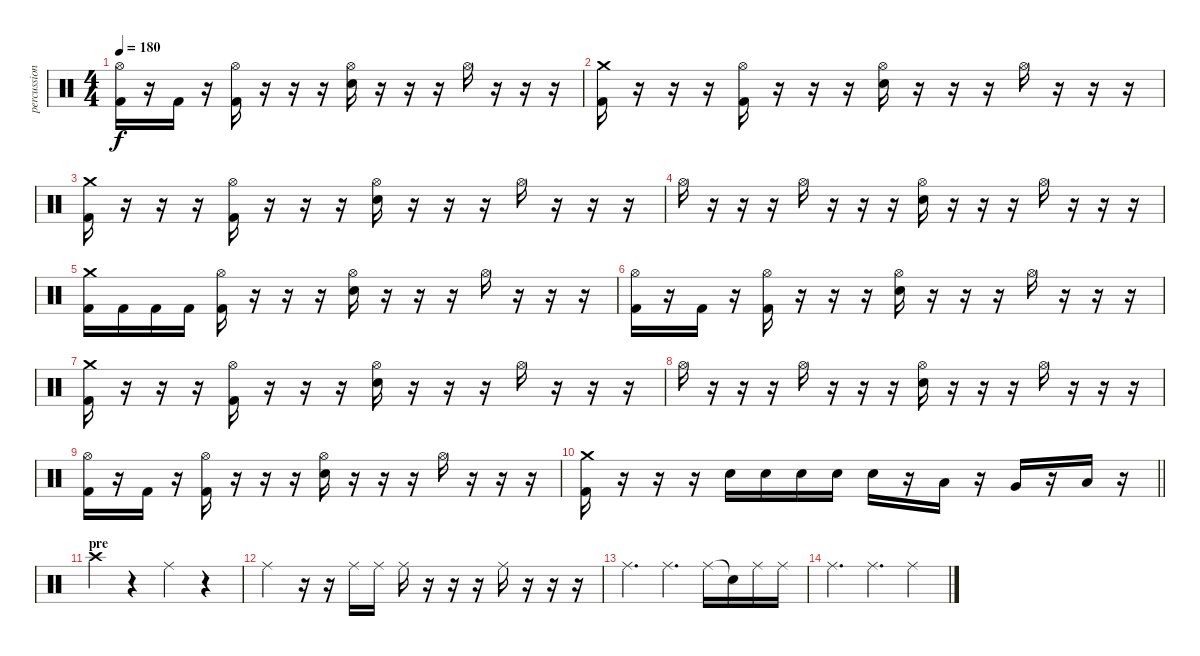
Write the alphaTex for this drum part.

\track ("percussion" "percussion") {instrument percussion}
\staff {score}
\articulation defaults
\ts (4 4)
\tempo 180
\clef neutral
\ks c
("Hi-Hat (open)" "Kick (hit) 2").16{dy f} r.16 "Kick (hit) 2".16 r.16 ("Hi-Hat (open)" "Kick (hit) 2").16 r.16 r.16 r.16 ("Hi-Hat (open)" "Electric Snare (hit)").16 r.16 r.16 r.16 "Hi-Hat (open)".16 r.16 r.16 r.16 |
("Crash medium (hit)" "Kick (hit) 2").16 r.16 r.16 r.16 ("Hi-Hat (open)" "Kick (hit) 2").16 r.16 r.16 r.16 ("Hi-Hat (open)" "Electric Snare (hit)").16 r.16 r.16 r.16 "Hi-Hat (open)".16 r.16 r.16 r.16 |
("Crash medium (hit)" "Kick (hit) 2").16 r.16 r.16 r.16 ("Hi-Hat (open)" "Kick (hit) 2").16 r.16 r.16 r.16 ("Hi-Hat (open)" "Electric Snare (hit)").16 r.16 r.16 r.16 "Hi-Hat (open)".16 r.16 r.16 r.16 |
"Hi-Hat (open)".16 r.16 r.16 r.16 "Hi-Hat (open)".16 r.16 r.16 r.16 ("Hi-Hat (open)" "Electric Snare (hit)").16 r.16 r.16 r.16 "Hi-Hat (open)".16 r.16 r.16 r.16 |
("Crash medium (hit)" "Kick (hit) 2").16 "Kick (hit) 2".16 "Kick (hit) 2".16 "Kick (hit) 2".16 ("Hi-Hat (open)" "Kick (hit) 2").16 r.16 r.16 r.16 ("Hi-Hat (open)" "Electric Snare (hit)").16 r.16 r.16 r.16 "Hi-Hat (open)".16 r.16 r.16 r.16 |
("Hi-Hat (open)" "Kick (hit) 2").16 r.16 "Kick (hit) 2".16 r.16 ("Hi-Hat (open)" "Kick (hit) 2").16 r.16 r.16 r.16 ("Hi-Hat (open)" "Electric Snare (hit)").16 r.16 r.16 r.16 "Hi-Hat (open)".16 r.16 r.16 r.16 |
("Crash medium (hit)" "Kick (hit) 2").16 r.16 r.16 r.16 ("Hi-Hat (open)" "Kick (hit) 2").16 r.16 r.16 r.16 ("Hi-Hat (open)" "Electric Snare (hit)").16 r.16 r.16 r.16 "Hi-Hat (open)".16 r.16 r.16 r.16 |
"Hi-Hat (open)".16 r.16 r.16 r.16 "Hi-Hat (open)".16 r.16 r.16 r.16 ("Hi-Hat (open)" "Electric Snare (hit)").16 r.16 r.16 r.16 "Hi-Hat (open)".16 r.16 r.16 r.16 |
("Hi-Hat (open)" "Kick (hit) 2").16 r.16 "Kick (hit) 2".16 r.16 ("Hi-Hat (open)" "Kick (hit) 2").16 r.16 r.16 r.16 ("Hi-Hat (open)" "Electric Snare (hit)").16 r.16 r.16 r.16 "Hi-Hat (open)".16 r.16 r.16 r.16 |
\barLineRight lightlight
("Crash medium (hit)" "Kick (hit) 2").16 r.16 r.16 r.16 "Electric Snare (hit)".16 "Electric Snare (hit)".16 "Electric Snare (hit)".16 "Electric Snare (hit)".16 "Electric Snare (hit)".16 r.16 "Low Tom (hit)".16 r.16 "Very Low Tom (hit)".16 r.16 "Low Floor Tom (hit)".16 r.16 |
\section ("" "pre")
"Crash high (hit)".4 r.4 "Ride (middle)".4 r.4 |
"Ride (middle)".4 r.16 r.16 "Ride (middle)".16 "Ride (middle)".16 "Ride (middle)".16 r.16 r.16 r.16 "Ride (middle)".16 r.16 r.16 r.16 |
"Ride (middle)".4{d} "Ride (middle)".4{d} "Ride (middle)".16 "Snare (hit)"{t}.16 "Ride (middle)".16 "Ride (middle)".16 |
"Ride (middle)".4{d} "Ride (middle)".4{d} "Ride (middle)".4
